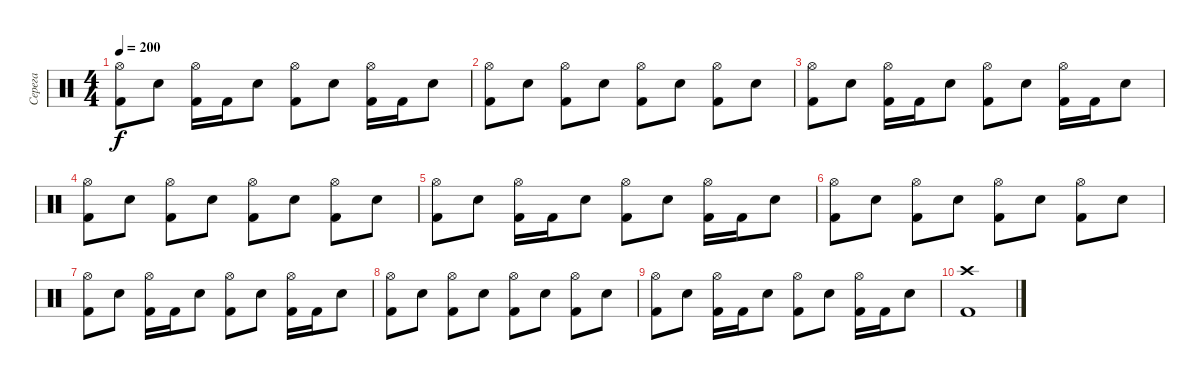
\track ("Серега" "Серега") {instrument percussion}
\staff {score}
\articulation defaults
\ts (4 4)
\tempo 200
\clef neutral
\ks c
("Hi-Hat (open)" "Kick (hit) 2").8{dy f} "Electric Snare (hit)".8 ("Hi-Hat (open)" "Kick (hit) 2").16 "Kick (hit) 2".16 "Electric Snare (hit)".8 ("Hi-Hat (open)" "Kick (hit) 2").8 "Electric Snare (hit)".8 ("Hi-Hat (open)" "Kick (hit) 2").16 "Kick (hit) 2".16 "Electric Snare (hit)".8 |
("Hi-Hat (open)" "Kick (hit) 2").8 "Electric Snare (hit)".8 ("Hi-Hat (open)" "Kick (hit) 2").8 "Electric Snare (hit)".8 ("Hi-Hat (open)" "Kick (hit) 2").8 "Electric Snare (hit)".8 ("Hi-Hat (open)" "Kick (hit) 2").8 "Electric Snare (hit)".8 |
("Hi-Hat (open)" "Kick (hit) 2").8 "Electric Snare (hit)".8 ("Hi-Hat (open)" "Kick (hit) 2").16 "Kick (hit) 2".16 "Electric Snare (hit)".8 ("Hi-Hat (open)" "Kick (hit) 2").8 "Electric Snare (hit)".8 ("Hi-Hat (open)" "Kick (hit) 2").16 "Kick (hit) 2".16 "Electric Snare (hit)".8 |
("Hi-Hat (open)" "Kick (hit) 2").8 "Electric Snare (hit)".8 ("Hi-Hat (open)" "Kick (hit) 2").8 "Electric Snare (hit)".8 ("Hi-Hat (open)" "Kick (hit) 2").8 "Electric Snare (hit)".8 ("Hi-Hat (open)" "Kick (hit) 2").8 "Electric Snare (hit)".8 |
("Hi-Hat (open)" "Kick (hit) 2").8 "Electric Snare (hit)".8 ("Hi-Hat (open)" "Kick (hit) 2").16 "Kick (hit) 2".16 "Electric Snare (hit)".8 ("Hi-Hat (open)" "Kick (hit) 2").8 "Electric Snare (hit)".8 ("Hi-Hat (open)" "Kick (hit) 2").16 "Kick (hit) 2".16 "Electric Snare (hit)".8 |
("Hi-Hat (open)" "Kick (hit) 2").8 "Electric Snare (hit)".8 ("Hi-Hat (open)" "Kick (hit) 2").8 "Electric Snare (hit)".8 ("Hi-Hat (open)" "Kick (hit) 2").8 "Electric Snare (hit)".8 ("Hi-Hat (open)" "Kick (hit) 2").8 "Electric Snare (hit)".8 |
("Hi-Hat (open)" "Kick (hit) 2").8 "Electric Snare (hit)".8 ("Hi-Hat (open)" "Kick (hit) 2").16 "Kick (hit) 2".16 "Electric Snare (hit)".8 ("Hi-Hat (open)" "Kick (hit) 2").8 "Electric Snare (hit)".8 ("Hi-Hat (open)" "Kick (hit) 2").16 "Kick (hit) 2".16 "Electric Snare (hit)".8 |
("Hi-Hat (open)" "Kick (hit) 2").8 "Electric Snare (hit)".8 ("Hi-Hat (open)" "Kick (hit) 2").8 "Electric Snare (hit)".8 ("Hi-Hat (open)" "Kick (hit) 2").8 "Electric Snare (hit)".8 ("Hi-Hat (open)" "Kick (hit) 2").8 "Electric Snare (hit)".8 |
("Hi-Hat (open)" "Kick (hit) 2").8 "Electric Snare (hit)".8 ("Hi-Hat (open)" "Kick (hit) 2").16 "Kick (hit) 2".16 "Electric Snare (hit)".8 ("Hi-Hat (open)" "Kick (hit) 2").8 "Electric Snare (hit)".8 ("Hi-Hat (open)" "Kick (hit) 2").16 "Kick (hit) 2".16 "Electric Snare (hit)".8 |
("Crash high (hit)" "Kick (hit) 2").1
